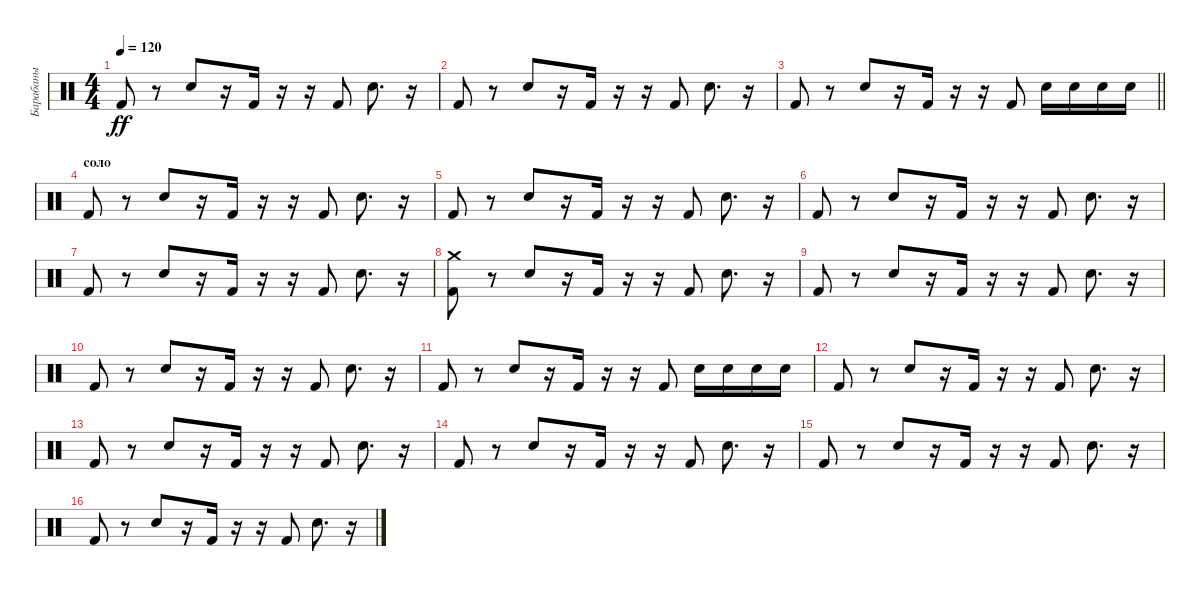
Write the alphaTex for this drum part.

\track ("Барабаны" "Барабаны") {instrument percussion}
\staff {score}
\articulation defaults
\ts (4 4)
\tempo 120
\clef neutral
\ks c "Kick (hit) 2".8{dy ff}
r.8 "Snare (hit) 2".8 r.16 "Kick (hit) 2".16 r.16 r.16 "Kick (hit) 2".8 "Snare (hit) 2".8{d} r.16 |
"Kick (hit) 2".8 r.8 "Snare (hit) 2".8 r.16 "Kick (hit) 2".16 r.16 r.16 "Kick (hit) 2".8 "Snare (hit) 2".8{d} r.16 |
\barLineRight lightlight "Kick (hit) 2".8
r.8 "Snare (hit) 2".8 r.16 "Kick (hit) 2".16 r.16 r.16 "Kick (hit) 2".8 "Electric Snare (hit)".16 "Electric Snare (hit)".16 "Electric Snare (hit)".16 "Electric Snare (hit)".16 |
\section ("" "соло")
"Kick (hit) 2".8 r.8 "Snare (hit) 2".8 r.16 "Kick (hit) 2".16 r.16 r.16 "Kick (hit) 2".8 "Snare (hit) 2".8{d} r.16 |
"Kick (hit) 2".8 r.8 "Snare (hit) 2".8 r.16 "Kick (hit) 2".16 r.16 r.16 "Kick (hit) 2".8 "Snare (hit) 2".8{d} r.16 |
"Kick (hit) 2".8 r.8 "Snare (hit) 2".8 r.16 "Kick (hit) 2".16 r.16 r.16 "Kick (hit) 2".8 "Snare (hit) 2".8{d} r.16 |
"Kick (hit) 2".8 r.8 "Snare (hit) 2".8 r.16 "Kick (hit) 2".16 r.16 r.16 "Kick (hit) 2".8 "Snare (hit) 2".8{d} r.16 |
("Crash medium (hit)" "Kick (hit) 2").8 r.8 "Snare (hit) 2".8 r.16 "Kick (hit) 2".16 r.16 r.16 "Kick (hit) 2".8 "Snare (hit) 2".8{d} r.16 |
"Kick (hit) 2".8 r.8 "Snare (hit) 2".8 r.16 "Kick (hit) 2".16 r.16 r.16 "Kick (hit) 2".8 "Snare (hit) 2".8{d} r.16 |
"Kick (hit) 2".8 r.8 "Snare (hit) 2".8 r.16 "Kick (hit) 2".16 r.16 r.16 "Kick (hit) 2".8 "Snare (hit) 2".8{d} r.16 |
"Kick (hit) 2".8 r.8 "Snare (hit) 2".8 r.16 "Kick (hit) 2".16 r.16 r.16 "Kick (hit) 2".8 "Electric Snare (hit)".16 "Electric Snare (hit)".16 "Electric Snare (hit)".16 "Electric Snare (hit)".16 |
"Kick (hit) 2".8 r.8 "Snare (hit) 2".8 r.16 "Kick (hit) 2".16 r.16 r.16 "Kick (hit) 2".8 "Snare (hit) 2".8{d} r.16 |
"Kick (hit) 2".8 r.8 "Snare (hit) 2".8 r.16 "Kick (hit) 2".16 r.16 r.16 "Kick (hit) 2".8 "Snare (hit) 2".8{d} r.16 |
"Kick (hit) 2".8 r.8 "Snare (hit) 2".8 r.16 "Kick (hit) 2".16 r.16 r.16 "Kick (hit) 2".8 "Snare (hit) 2".8{d} r.16 |
"Kick (hit) 2".8 r.8 "Snare (hit) 2".8 r.16 "Kick (hit) 2".16 r.16 r.16 "Kick (hit) 2".8 "Snare (hit) 2".8{d} r.16 |
"Kick (hit) 2".8 r.8 "Snare (hit) 2".8 r.16 "Kick (hit) 2".16 r.16 r.16 "Kick (hit) 2".8 "Snare (hit) 2".8{d} r.16
